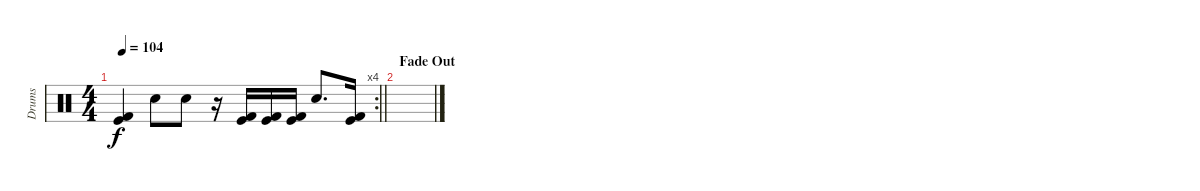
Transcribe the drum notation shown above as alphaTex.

\track ("Drums" "Drums") {instrument percussion}
\staff {score}
\articulation defaults
\rc 4
\ts (4 4)
\tempo 104
\clef neutral
\barLineRight lightlight
\ks c
("Kick (hit) 2" "Kick (hit)").4{dy f} "Snare (hit) 2".8 "Snare (hit) 2".8 r.16 ("Kick (hit) 2" "Kick (hit)").16 ("Kick (hit) 2" "Kick (hit)").16 ("Kick (hit) 2" "Kick (hit)").16 "Snare (hit) 2".8{d} ("Kick (hit) 2" "Kick (hit)").16 |
\section ("" "Fade Out")
